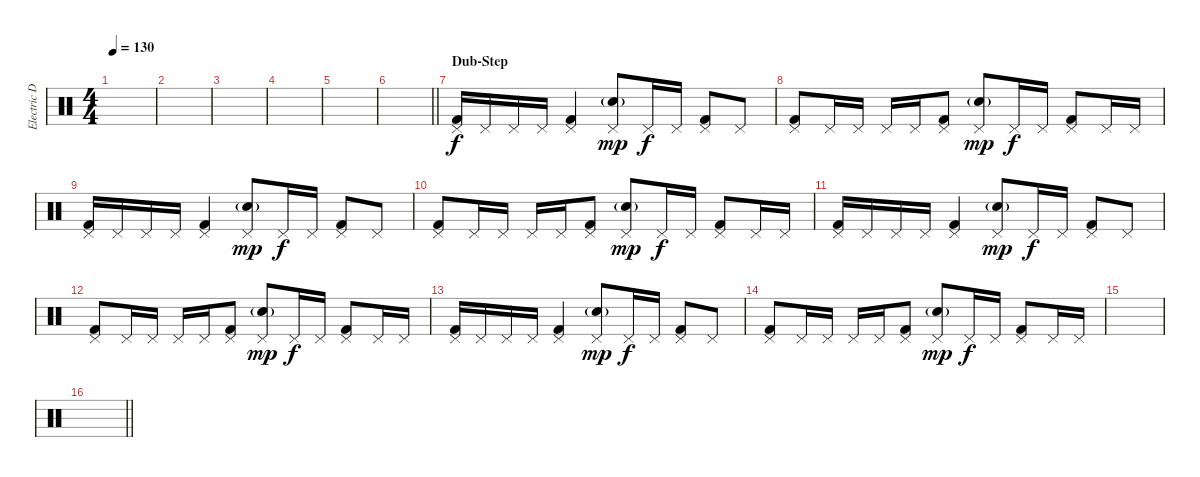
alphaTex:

\track ("Electric Drums" "Electric D") {instrument percussion}
\staff {score}
\articulation defaults
\ts (4 4)
\tempo 130
\clef neutral
\ks c
|
|
|
|
|
\barLineRight lightlight
|
\section ("" "Dub-Step")
("Pedal Hi-Hat (hit)" "Kick (hit) 2").16 "Pedal Hi-Hat (hit)".16 "Pedal Hi-Hat (hit)".16 "Pedal Hi-Hat (hit)".16 ("Pedal Hi-Hat (hit)" "Kick (hit) 2").4 ("Pedal Hi-Hat (hit)" "Electric Snare (hit)"{g}).8{dy mp} "Pedal Hi-Hat (hit)".16{dy f} "Pedal Hi-Hat (hit)".16 ("Pedal Hi-Hat (hit)" "Kick (hit) 2").8 "Pedal Hi-Hat (hit)".8 |
("Pedal Hi-Hat (hit)" "Kick (hit) 2").8 "Pedal Hi-Hat (hit)".16 "Pedal Hi-Hat (hit)".16 "Pedal Hi-Hat (hit)".16 "Pedal Hi-Hat (hit)".16 ("Pedal Hi-Hat (hit)" "Kick (hit) 2").8 ("Pedal Hi-Hat (hit)" "Electric Snare (hit)"{g}).8{dy mp} "Pedal Hi-Hat (hit)".16{dy f} "Pedal Hi-Hat (hit)".16 ("Pedal Hi-Hat (hit)" "Kick (hit) 2").8 "Pedal Hi-Hat (hit)".16 "Pedal Hi-Hat (hit)".16 |
("Pedal Hi-Hat (hit)" "Kick (hit) 2").16 "Pedal Hi-Hat (hit)".16 "Pedal Hi-Hat (hit)".16 "Pedal Hi-Hat (hit)".16 ("Pedal Hi-Hat (hit)" "Kick (hit) 2").4 ("Pedal Hi-Hat (hit)" "Electric Snare (hit)"{g}).8{dy mp} "Pedal Hi-Hat (hit)".16{dy f} "Pedal Hi-Hat (hit)".16 ("Pedal Hi-Hat (hit)" "Kick (hit) 2").8 "Pedal Hi-Hat (hit)".8 |
("Pedal Hi-Hat (hit)" "Kick (hit) 2").8 "Pedal Hi-Hat (hit)".16 "Pedal Hi-Hat (hit)".16 "Pedal Hi-Hat (hit)".16 "Pedal Hi-Hat (hit)".16 ("Pedal Hi-Hat (hit)" "Kick (hit) 2").8 ("Pedal Hi-Hat (hit)" "Electric Snare (hit)"{g}).8{dy mp} "Pedal Hi-Hat (hit)".16{dy f} "Pedal Hi-Hat (hit)".16 ("Pedal Hi-Hat (hit)" "Kick (hit) 2").8 "Pedal Hi-Hat (hit)".16 "Pedal Hi-Hat (hit)".16 |
("Pedal Hi-Hat (hit)" "Kick (hit) 2").16 "Pedal Hi-Hat (hit)".16 "Pedal Hi-Hat (hit)".16 "Pedal Hi-Hat (hit)".16 ("Pedal Hi-Hat (hit)" "Kick (hit) 2").4 ("Pedal Hi-Hat (hit)" "Electric Snare (hit)"{g}).8{dy mp} "Pedal Hi-Hat (hit)".16{dy f} "Pedal Hi-Hat (hit)".16 ("Pedal Hi-Hat (hit)" "Kick (hit) 2").8 "Pedal Hi-Hat (hit)".8 |
("Pedal Hi-Hat (hit)" "Kick (hit) 2").8 "Pedal Hi-Hat (hit)".16 "Pedal Hi-Hat (hit)".16 "Pedal Hi-Hat (hit)".16 "Pedal Hi-Hat (hit)".16 ("Pedal Hi-Hat (hit)" "Kick (hit) 2").8 ("Pedal Hi-Hat (hit)" "Electric Snare (hit)"{g}).8{dy mp} "Pedal Hi-Hat (hit)".16{dy f} "Pedal Hi-Hat (hit)".16 ("Pedal Hi-Hat (hit)" "Kick (hit) 2").8 "Pedal Hi-Hat (hit)".16 "Pedal Hi-Hat (hit)".16 |
("Pedal Hi-Hat (hit)" "Kick (hit) 2").16 "Pedal Hi-Hat (hit)".16 "Pedal Hi-Hat (hit)".16 "Pedal Hi-Hat (hit)".16 ("Pedal Hi-Hat (hit)" "Kick (hit) 2").4 ("Pedal Hi-Hat (hit)" "Electric Snare (hit)"{g}).8{dy mp} "Pedal Hi-Hat (hit)".16{dy f} "Pedal Hi-Hat (hit)".16 ("Pedal Hi-Hat (hit)" "Kick (hit) 2").8 "Pedal Hi-Hat (hit)".8 |
("Pedal Hi-Hat (hit)" "Kick (hit) 2").8 "Pedal Hi-Hat (hit)".16 "Pedal Hi-Hat (hit)".16 "Pedal Hi-Hat (hit)".16 "Pedal Hi-Hat (hit)".16 ("Pedal Hi-Hat (hit)" "Kick (hit) 2").8 ("Pedal Hi-Hat (hit)" "Electric Snare (hit)"{g}).8{dy mp} "Pedal Hi-Hat (hit)".16{dy f} "Pedal Hi-Hat (hit)".16 ("Pedal Hi-Hat (hit)" "Kick (hit) 2").8 "Pedal Hi-Hat (hit)".16 "Pedal Hi-Hat (hit)".16 |
|
\barLineRight lightlight
